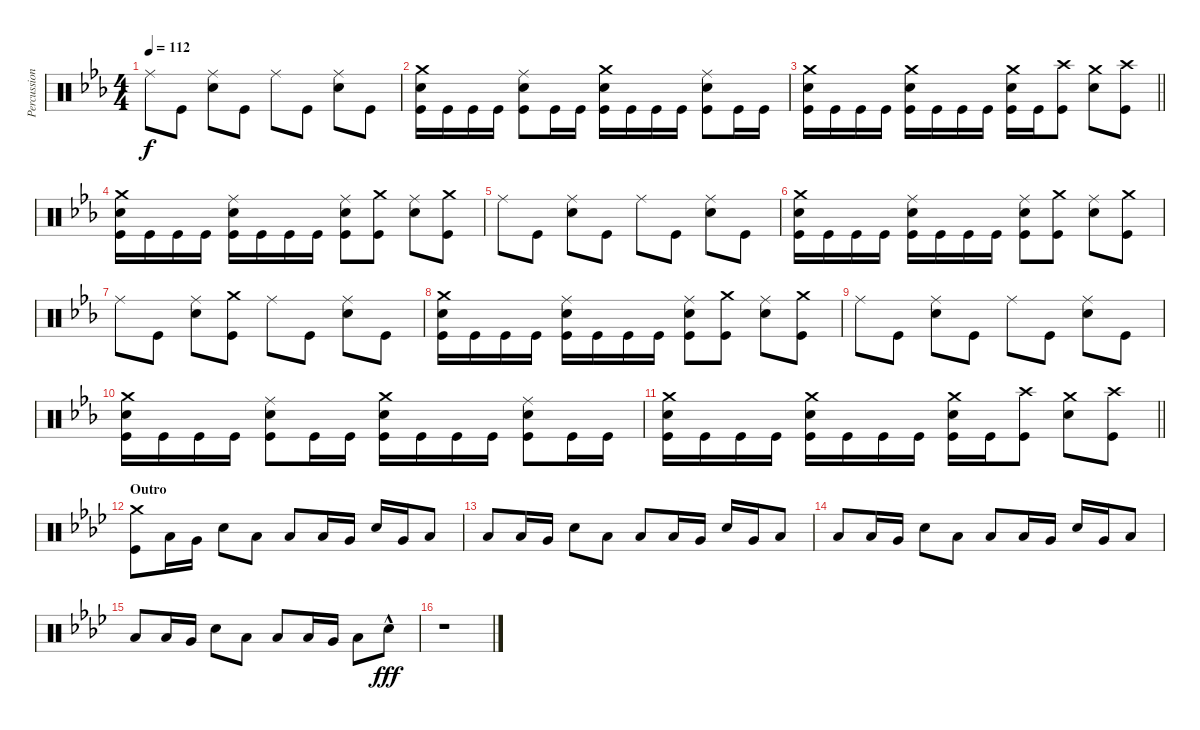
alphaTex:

\track ("Percussion" "Percussion") {instrument percussion}
\staff {score}
\articulation defaults
\ts (4 4)
\tempo 112
\clef neutral
\ks eb "Ride (middle)".8{dy f} "Kick (hit)".8
("Ride (middle)" "Electric Snare (hit)").8 "Kick (hit)".8 "Ride (middle)".8 "Kick (hit)".8 ("Ride (middle)" "Electric Snare (hit)").8 "Kick (hit)".8 |
("Crash medium (hit)" "Electric Snare (hit)" "Kick (hit)").16 "Kick (hit)".16 "Kick (hit)".16 "Kick (hit)".16 ("Ride (middle)" "Electric Snare (hit)" "Kick (hit)").8 "Kick (hit)".16 "Kick (hit)".16 ("Crash medium (hit)" "Electric Snare (hit)" "Kick (hit)").16 "Kick (hit)".16 "Kick (hit)".16 "Kick (hit)".16 ("Ride (middle)" "Electric Snare (hit)" "Kick (hit)").8 "Kick (hit)".16 "Kick (hit)".16 |
\barLineRight lightlight
("Crash medium (hit)" "Electric Snare (hit)" "Kick (hit)").16 "Kick (hit)".16 "Kick (hit)".16 "Kick (hit)".16 ("Crash medium (hit)" "Electric Snare (hit)" "Kick (hit)").16 "Kick (hit)".16 "Kick (hit)".16 "Kick (hit)".16 ("Crash medium (hit)" "Electric Snare (hit)" "Kick (hit)").16 "Kick (hit)".16 ("Crash high (hit)" "Kick (hit)").8 ("Crash medium (hit)" "Electric Snare (hit)").8 ("Crash high (hit)" "Kick (hit)").8 |
("Crash medium (hit)" "Electric Snare (hit)" "Kick (hit)").16 "Kick (hit)".16 "Kick (hit)".16 "Kick (hit)".16 ("Ride (middle)" "Electric Snare (hit)" "Kick (hit)").16 "Kick (hit)".16 "Kick (hit)".16 "Kick (hit)".16 ("Ride (middle)" "Electric Snare (hit)" "Kick (hit)").8 ("Crash medium (hit)" "Kick (hit)").8 ("Ride (middle)" "Electric Snare (hit)").8 ("Crash medium (hit)" "Kick (hit)").8 |
"Ride (middle)".8 "Kick (hit)".8 ("Ride (middle)" "Electric Snare (hit)").8 "Kick (hit)".8 "Ride (middle)".8 "Kick (hit)".8 ("Ride (middle)" "Electric Snare (hit)").8 "Kick (hit)".8 |
("Crash medium (hit)" "Electric Snare (hit)" "Kick (hit)").16 "Kick (hit)".16 "Kick (hit)".16 "Kick (hit)".16 ("Ride (middle)" "Electric Snare (hit)" "Kick (hit)").16 "Kick (hit)".16 "Kick (hit)".16 "Kick (hit)".16 ("Ride (middle)" "Electric Snare (hit)" "Kick (hit)").8 ("Crash medium (hit)" "Kick (hit)").8 ("Ride (middle)" "Electric Snare (hit)").8 ("Crash medium (hit)" "Kick (hit)").8 |
"Ride (middle)".8 "Kick (hit)".8 ("Ride (middle)" "Electric Snare (hit)").8 ("Crash medium (hit)" "Kick (hit)").8 "Ride (middle)".8 "Kick (hit)".8 ("Ride (middle)" "Electric Snare (hit)").8 "Kick (hit)".8 |
("Crash medium (hit)" "Electric Snare (hit)" "Kick (hit)").16 "Kick (hit)".16 "Kick (hit)".16 "Kick (hit)".16 ("Ride (middle)" "Electric Snare (hit)" "Kick (hit)").16 "Kick (hit)".16 "Kick (hit)".16 "Kick (hit)".16 ("Ride (middle)" "Electric Snare (hit)" "Kick (hit)").8 ("Crash medium (hit)" "Kick (hit)").8 ("Ride (middle)" "Electric Snare (hit)").8 ("Crash medium (hit)" "Kick (hit)").8 |
"Ride (middle)".8 "Kick (hit)".8 ("Ride (middle)" "Electric Snare (hit)").8 "Kick (hit)".8 "Ride (middle)".8 "Kick (hit)".8 ("Ride (middle)" "Electric Snare (hit)").8 "Kick (hit)".8 |
("Crash medium (hit)" "Electric Snare (hit)" "Kick (hit)").16 "Kick (hit)".16 "Kick (hit)".16 "Kick (hit)".16 ("Ride (middle)" "Electric Snare (hit)" "Kick (hit)").8 "Kick (hit)".16 "Kick (hit)".16 ("Crash medium (hit)" "Electric Snare (hit)" "Kick (hit)").16 "Kick (hit)".16 "Kick (hit)".16 "Kick (hit)".16 ("Ride (middle)" "Electric Snare (hit)" "Kick (hit)").8 "Kick (hit)".16 "Kick (hit)".16 |
\barLineRight lightlight
("Crash medium (hit)" "Electric Snare (hit)" "Kick (hit)").16 "Kick (hit)".16 "Kick (hit)".16 "Kick (hit)".16 ("Crash medium (hit)" "Electric Snare (hit)" "Kick (hit)").16 "Kick (hit)".16 "Kick (hit)".16 "Kick (hit)".16 ("Crash medium (hit)" "Electric Snare (hit)" "Kick (hit)").16 "Kick (hit)".16 ("Crash high (hit)" "Kick (hit)").8 ("Crash medium (hit)" "Electric Snare (hit)").8 ("Crash high (hit)" "Kick (hit)").8 |
\section ("" "Outro")
\ks ab
("Crash medium (hit)" "Kick (hit)").8 "Low Floor Tom (hit)".16 "Very Low Tom (hit)".16 "Electric Snare (hit)".8 "Low Floor Tom (hit)".8 "Low Floor Tom (hit)".8 "Low Floor Tom (hit)".16 "Very Low Tom (hit)".16 "Electric Snare (hit)".16 "Very Low Tom (hit)".16 "Low Floor Tom (hit)".8 |
"Low Floor Tom (hit)".8 "Low Floor Tom (hit)".16 "Very Low Tom (hit)".16 "Electric Snare (hit)".8 "Low Floor Tom (hit)".8 "Low Floor Tom (hit)".8 "Low Floor Tom (hit)".16 "Very Low Tom (hit)".16 "Electric Snare (hit)".16 "Very Low Tom (hit)".16 "Low Floor Tom (hit)".8 |
"Low Floor Tom (hit)".8 "Low Floor Tom (hit)".16 "Very Low Tom (hit)".16 "Electric Snare (hit)".8 "Low Floor Tom (hit)".8 "Low Floor Tom (hit)".8 "Low Floor Tom (hit)".16 "Very Low Tom (hit)".16 "Electric Snare (hit)".16 "Very Low Tom (hit)".16 "Low Floor Tom (hit)".8 |
"Low Floor Tom (hit)".8 "Low Floor Tom (hit)".16 "Very Low Tom (hit)".16 "Electric Snare (hit)".8 "Low Floor Tom (hit)".8 "Low Floor Tom (hit)".8 "Low Floor Tom (hit)".16 "Very Low Tom (hit)".16 "Low Floor Tom (hit)".8 "Electric Snare (hit)"{hac}.8{dy fff} |
r.1
